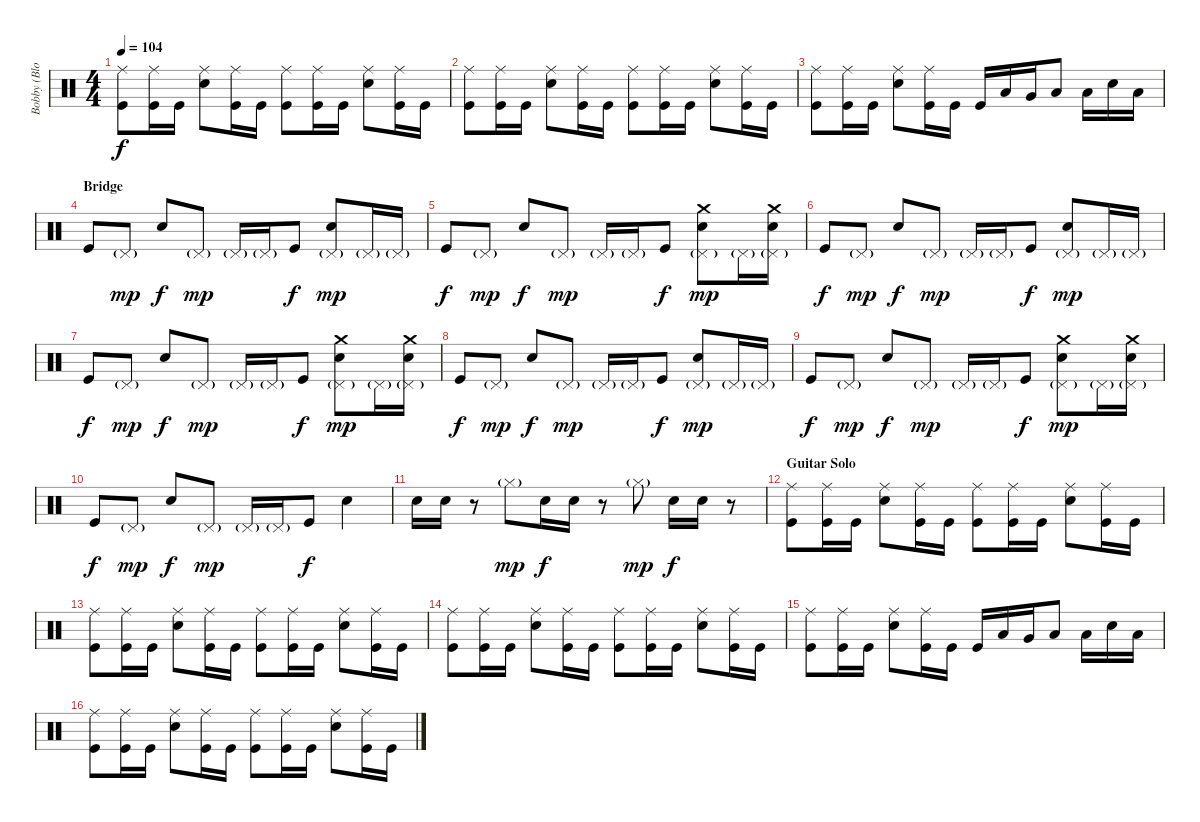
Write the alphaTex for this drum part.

\track ("Bobby (Blotz) Blotzer - Drums" "Bobby (Blo") {instrument percussion}
\staff {score}
\articulation defaults
\ts (4 4)
\tempo 104
\clef neutral
\ks c
("Ride (middle)" "Kick (hit)").8{dy f} ("Ride (middle)" "Kick (hit)").16 "Kick (hit)".16 ("Ride (middle)" "Snare (hit) 2").8 ("Ride (middle)" "Kick (hit)").16 "Kick (hit)".16 ("Ride (middle)" "Kick (hit)").8 ("Ride (middle)" "Kick (hit)").16 "Kick (hit)".16 ("Ride (middle)" "Snare (hit) 2").8 ("Ride (middle)" "Kick (hit)").16 "Kick (hit)".16 |
("Ride (middle)" "Kick (hit)").8 ("Ride (middle)" "Kick (hit)").16 "Kick (hit)".16 ("Ride (middle)" "Snare (hit) 2").8 ("Ride (middle)" "Kick (hit)").16 "Kick (hit)".16 ("Ride (middle)" "Kick (hit)").8 ("Ride (middle)" "Kick (hit)").16 "Kick (hit)".16 ("Ride (middle)" "Snare (hit) 2").8 ("Ride (middle)" "Kick (hit)").16 "Kick (hit)".16 |
("Ride (middle)" "Kick (hit)").8 ("Ride (middle)" "Kick (hit)").16 "Kick (hit)".16 ("Ride (middle)" "Snare (hit) 2").8 ("Ride (middle)" "Kick (hit)").16 "Kick (hit)".16 "Kick (hit)".16 "Low Tom (hit)".16 "Very Low Tom (hit)".16 "Low Tom (hit)".8 "Low Floor Tom (hit)".16 "Snare (hit) 2".16 "Low Tom (hit)".16 |
\section ("" "Bridge")
"Kick (hit)".8 "Pedal Hi-Hat (hit)"{g}.8{dy mp} "Snare (hit) 2".8{dy f} "Pedal Hi-Hat (hit)"{g}.8{dy mp} "Pedal Hi-Hat (hit)"{g}.16 "Pedal Hi-Hat (hit)"{g}.16 "Kick (hit)".8{dy f} ("Pedal Hi-Hat (hit)"{g} "Snare (hit) 2").8{dy mp} "Pedal Hi-Hat (hit)"{g}.16 "Pedal Hi-Hat (hit)"{g}.16 |
"Kick (hit)".8{dy f} "Pedal Hi-Hat (hit)"{g}.8{dy mp} "Snare (hit) 2".8{dy f} "Pedal Hi-Hat (hit)"{g}.8{dy mp} "Pedal Hi-Hat (hit)"{g}.16 "Pedal Hi-Hat (hit)"{g}.16 "Kick (hit)".8{dy f} ("Pedal Hi-Hat (hit)"{g} "Crash medium (hit)" "Snare (hit) 2").8{dy mp} "Pedal Hi-Hat (hit)"{g}.16 ("Pedal Hi-Hat (hit)"{g} "Crash medium (hit)" "Snare (hit) 2").16 |
"Kick (hit)".8{dy f} "Pedal Hi-Hat (hit)"{g}.8{dy mp} "Snare (hit) 2".8{dy f} "Pedal Hi-Hat (hit)"{g}.8{dy mp} "Pedal Hi-Hat (hit)"{g}.16 "Pedal Hi-Hat (hit)"{g}.16 "Kick (hit)".8{dy f} ("Pedal Hi-Hat (hit)"{g} "Snare (hit) 2").8{dy mp} "Pedal Hi-Hat (hit)"{g}.16 "Pedal Hi-Hat (hit)"{g}.16 |
"Kick (hit)".8{dy f} "Pedal Hi-Hat (hit)"{g}.8{dy mp} "Snare (hit) 2".8{dy f} "Pedal Hi-Hat (hit)"{g}.8{dy mp} "Pedal Hi-Hat (hit)"{g}.16 "Pedal Hi-Hat (hit)"{g}.16 "Kick (hit)".8{dy f} ("Pedal Hi-Hat (hit)"{g} "Crash medium (hit)" "Snare (hit) 2").8{dy mp} "Pedal Hi-Hat (hit)"{g}.16 ("Pedal Hi-Hat (hit)"{g} "Crash medium (hit)" "Snare (hit) 2").16 |
"Kick (hit)".8{dy f} "Pedal Hi-Hat (hit)"{g}.8{dy mp} "Snare (hit) 2".8{dy f} "Pedal Hi-Hat (hit)"{g}.8{dy mp} "Pedal Hi-Hat (hit)"{g}.16 "Pedal Hi-Hat (hit)"{g}.16 "Kick (hit)".8{dy f} ("Pedal Hi-Hat (hit)"{g} "Snare (hit) 2").8{dy mp} "Pedal Hi-Hat (hit)"{g}.16 "Pedal Hi-Hat (hit)"{g}.16 |
"Kick (hit)".8{dy f} "Pedal Hi-Hat (hit)"{g}.8{dy mp} "Snare (hit) 2".8{dy f} "Pedal Hi-Hat (hit)"{g}.8{dy mp} "Pedal Hi-Hat (hit)"{g}.16 "Pedal Hi-Hat (hit)"{g}.16 "Kick (hit)".8{dy f} ("Pedal Hi-Hat (hit)"{g} "Crash medium (hit)" "Snare (hit) 2").8{dy mp} "Pedal Hi-Hat (hit)"{g}.16 ("Pedal Hi-Hat (hit)"{g} "Crash medium (hit)" "Snare (hit) 2").16 |
"Kick (hit)".8{dy f} "Pedal Hi-Hat (hit)"{g}.8{dy mp} "Snare (hit) 2".8{dy f} "Pedal Hi-Hat (hit)"{g}.8{dy mp} "Pedal Hi-Hat (hit)"{g}.16 "Pedal Hi-Hat (hit)"{g}.16 "Kick (hit)".8{dy f} "Snare (hit) 2".4 |
"Snare (hit) 2".16 "Snare (hit) 2".16 r.8 "Hi-Hat (closed)"{g}.8{dy mp} "Snare (hit) 2".16{dy f} "Snare (hit) 2".16 r.8 "Hi-Hat (closed)"{g}.8{dy mp} "Snare (hit) 2".16{dy f} "Snare (hit) 2".16 r.8 |
\section ("" "Guitar Solo")
("Ride (middle)" "Kick (hit)").8 ("Ride (middle)" "Kick (hit)").16 "Kick (hit)".16 ("Ride (middle)" "Snare (hit) 2").8 ("Ride (middle)" "Kick (hit)").16 "Kick (hit)".16 ("Ride (middle)" "Kick (hit)").8 ("Ride (middle)" "Kick (hit)").16 "Kick (hit)".16 ("Ride (middle)" "Snare (hit) 2").8 ("Ride (middle)" "Kick (hit)").16 "Kick (hit)".16 |
("Ride (middle)" "Kick (hit)").8 ("Ride (middle)" "Kick (hit)").16 "Kick (hit)".16 ("Ride (middle)" "Snare (hit) 2").8 ("Ride (middle)" "Kick (hit)").16 "Kick (hit)".16 ("Ride (middle)" "Kick (hit)").8 ("Ride (middle)" "Kick (hit)").16 "Kick (hit)".16 ("Ride (middle)" "Snare (hit) 2").8 ("Ride (middle)" "Kick (hit)").16 "Kick (hit)".16 |
("Ride (middle)" "Kick (hit)").8 ("Ride (middle)" "Kick (hit)").16 "Kick (hit)".16 ("Ride (middle)" "Snare (hit) 2").8 ("Ride (middle)" "Kick (hit)").16 "Kick (hit)".16 ("Ride (middle)" "Kick (hit)").8 ("Ride (middle)" "Kick (hit)").16 "Kick (hit)".16 ("Ride (middle)" "Snare (hit) 2").8 ("Ride (middle)" "Kick (hit)").16 "Kick (hit)".16 |
("Ride (middle)" "Kick (hit)").8 ("Ride (middle)" "Kick (hit)").16 "Kick (hit)".16 ("Ride (middle)" "Snare (hit) 2").8 ("Ride (middle)" "Kick (hit)").16 "Kick (hit)".16 "Kick (hit)".16 "Low Tom (hit)".16 "Very Low Tom (hit)".16 "Low Tom (hit)".8 "Low Floor Tom (hit)".16 "Snare (hit) 2".16 "Low Tom (hit)".16 |
("Ride (middle)" "Kick (hit)").8 ("Ride (middle)" "Kick (hit)").16 "Kick (hit)".16 ("Ride (middle)" "Snare (hit) 2").8 ("Ride (middle)" "Kick (hit)").16 "Kick (hit)".16 ("Ride (middle)" "Kick (hit)").8 ("Ride (middle)" "Kick (hit)").16 "Kick (hit)".16 ("Ride (middle)" "Snare (hit) 2").8 ("Ride (middle)" "Kick (hit)").16 "Kick (hit)".16
